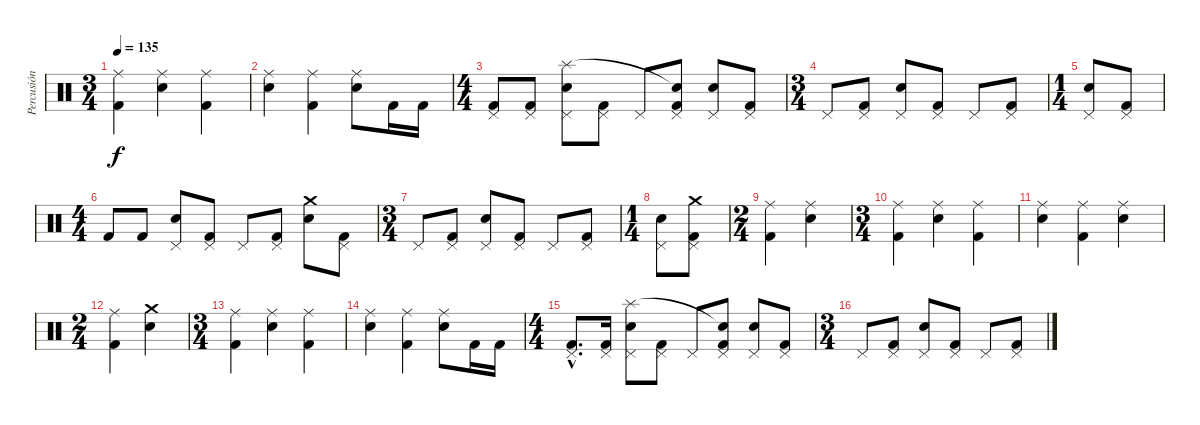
\track ("Percusión" "Percusión") {instrument percussion}
\staff {score}
\articulation defaults
\ts (3 4)
\tempo 135
\clef neutral
\ks c
("Kick (hit) 2" "Ride (middle)").4{dy f} ("Snare (hit) 2" "Ride (middle)").4 ("Kick (hit) 2" "Ride (middle)").4 |
("Snare (hit) 2" "Ride (middle)").4 ("Kick (hit) 2" "Ride (middle)").4 ("Snare (hit) 2" "Ride (middle)").8 "Kick (hit) 2".16 "Kick (hit) 2".16 |
\ts (4 4)
("Kick (hit) 2" "Pedal Hi-Hat (hit)").8 ("Kick (hit) 2" "Pedal Hi-Hat (hit)").8 ("Snare (hit) 2" "Pedal Hi-Hat (hit)" "Splash (hit)").8 ("Kick (hit) 2" "Pedal Hi-Hat (hit)").8 "Pedal Hi-Hat (hit)".8 ("Kick (hit) 2" "Pedal Hi-Hat (hit)" "Snare (hit)"{t}).8 ("Snare (hit) 2" "Pedal Hi-Hat (hit)").8 ("Kick (hit) 2" "Pedal Hi-Hat (hit)").8 |
\ts (3 4)
"Pedal Hi-Hat (hit)".8 ("Kick (hit) 2" "Pedal Hi-Hat (hit)").8 ("Snare (hit) 2" "Pedal Hi-Hat (hit)").8 ("Kick (hit) 2" "Pedal Hi-Hat (hit)").8 "Pedal Hi-Hat (hit)".8 ("Kick (hit) 2" "Pedal Hi-Hat (hit)").8 |
\ts (1 4)
("Snare (hit) 2" "Pedal Hi-Hat (hit)").8 ("Kick (hit) 2" "Pedal Hi-Hat (hit)").8 |
\ts (4 4)
"Kick (hit) 2".8 "Kick (hit) 2".8 ("Snare (hit) 2" "Pedal Hi-Hat (hit)").8 ("Kick (hit) 2" "Pedal Hi-Hat (hit)").8 "Pedal Hi-Hat (hit)".8 ("Kick (hit) 2" "Pedal Hi-Hat (hit)").8 ("Snare (hit) 2" "Crash medium (hit)").8 ("Kick (hit) 2" "Pedal Hi-Hat (hit)").8 |
\ts (3 4)
"Pedal Hi-Hat (hit)".8 ("Kick (hit) 2" "Pedal Hi-Hat (hit)").8 ("Snare (hit) 2" "Pedal Hi-Hat (hit)").8 ("Kick (hit) 2" "Pedal Hi-Hat (hit)").8 "Pedal Hi-Hat (hit)".8 ("Kick (hit) 2" "Pedal Hi-Hat (hit)").8 |
\ts (1 4)
("Snare (hit) 2" "Pedal Hi-Hat (hit)").8 ("Kick (hit) 2" "Pedal Hi-Hat (hit)" "Crash medium (hit)").8 |
\ts (2 4)
("Kick (hit) 2" "Ride (middle)").4 ("Snare (hit) 2" "Ride (middle)").4 |
\ts (3 4)
("Kick (hit) 2" "Ride (middle)").4 ("Snare (hit) 2" "Ride (middle)").4 ("Kick (hit) 2" "Ride (middle)").4 |
("Snare (hit) 2" "Ride (middle)").4 ("Kick (hit) 2" "Ride (middle)").4 ("Snare (hit) 2" "Ride (middle)").4 |
\ts (2 4)
("Kick (hit) 2" "Ride (middle)").4 ("Snare (hit) 2" "Crash medium (hit)").4 |
\ts (3 4)
("Kick (hit) 2" "Ride (middle)").4 ("Snare (hit) 2" "Ride (middle)").4 ("Kick (hit) 2" "Ride (middle)").4 |
("Snare (hit) 2" "Ride (middle)").4 ("Kick (hit) 2" "Ride (middle)").4 ("Snare (hit) 2" "Ride (middle)").8 "Kick (hit) 2".16 "Kick (hit) 2".16 |
\ts (4 4)
("Kick (hit) 2"{hac} "Pedal Hi-Hat (hit)"{hac}).8{d} ("Kick (hit) 2" "Pedal Hi-Hat (hit)").16 ("Snare (hit) 2" "Pedal Hi-Hat (hit)" "Splash (hit)").8 ("Kick (hit) 2" "Pedal Hi-Hat (hit)").8 "Pedal Hi-Hat (hit)".8 ("Kick (hit) 2" "Pedal Hi-Hat (hit)" "Snare (hit)"{t}).8 ("Snare (hit) 2" "Pedal Hi-Hat (hit)").8 ("Kick (hit) 2" "Pedal Hi-Hat (hit)").8 |
\ts (3 4)
"Pedal Hi-Hat (hit)".8 ("Kick (hit) 2" "Pedal Hi-Hat (hit)").8 ("Snare (hit) 2" "Pedal Hi-Hat (hit)").8 ("Kick (hit) 2" "Pedal Hi-Hat (hit)").8 "Pedal Hi-Hat (hit)".8 ("Kick (hit) 2" "Pedal Hi-Hat (hit)").8
